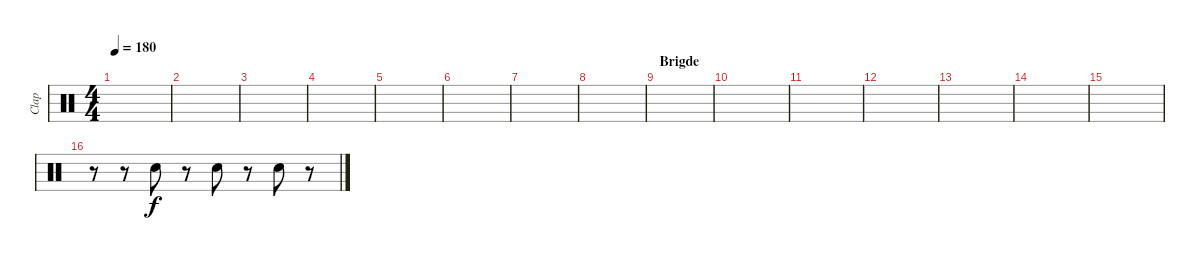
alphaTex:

\track ("Clap" "Clap") {instrument percussion}
\staff {score}
\articulation defaults
\ts (4 4)
\tempo 180
\clef neutral
\ks c
|
|
|
|
|
|
|
|
\section ("" "Brigde")
|
|
|
|
|
|
|
r.8 r.8 "Hand Clap (hit)".8 r.8 "Hand Clap (hit)".8 r.8 "Hand Clap (hit)".8 r.8
